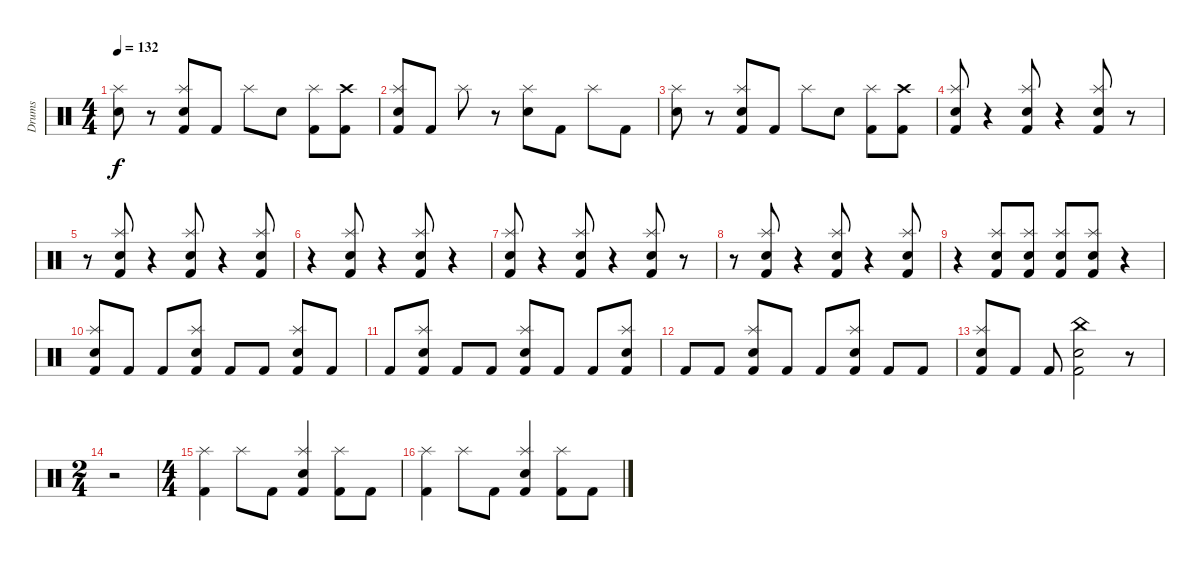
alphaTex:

\track ("Drums" "Drums") {instrument percussion}
\staff {score}
\articulation defaults
\ts (4 4)
\tempo 132
\clef neutral
\ks c
("Electric Snare (hit)" "Splash (hit)").8{dy f} r.8 ("Kick (hit) 2" "Splash (hit)" "Electric Snare (hit)").8 "Kick (hit) 2".8 "Splash (hit)".8 "Electric Snare (hit)".8 ("Kick (hit) 2" "Splash (hit)").8 ("Kick (hit) 2" "Crash high (hit)").8 |
("Kick (hit) 2" "Splash (hit)" "Electric Snare (hit)").8 "Kick (hit) 2".8 "Splash (hit)".8 r.8 ("Electric Snare (hit)" "Splash (hit)").8 "Kick (hit) 2".8 "Splash (hit)".8 "Kick (hit) 2".8 |
("Electric Snare (hit)" "Splash (hit)").8 r.8 ("Kick (hit) 2" "Splash (hit)" "Electric Snare (hit)").8 "Kick (hit) 2".8 "Splash (hit)".8 "Electric Snare (hit)".8 ("Kick (hit) 2" "Splash (hit)").8 ("Kick (hit) 2" "Crash high (hit)").8 |
("Kick (hit) 2" "Splash (hit)" "Electric Snare (hit)").8 r.4 ("Kick (hit) 2" "Splash (hit)" "Electric Snare (hit)").8 r.4 ("Kick (hit) 2" "Splash (hit)" "Electric Snare (hit)").8 r.8 |
r.8 ("Kick (hit) 2" "Splash (hit)" "Electric Snare (hit)").8 r.4 ("Kick (hit) 2" "Splash (hit)" "Electric Snare (hit)").8 r.4 ("Kick (hit) 2" "Splash (hit)" "Electric Snare (hit)").8 |
r.4 ("Kick (hit) 2" "Splash (hit)" "Electric Snare (hit)").8 r.4 ("Kick (hit) 2" "Splash (hit)" "Electric Snare (hit)").8 r.4 |
("Kick (hit) 2" "Splash (hit)" "Electric Snare (hit)").8 r.4 ("Kick (hit) 2" "Splash (hit)" "Electric Snare (hit)").8 r.4 ("Kick (hit) 2" "Splash (hit)" "Electric Snare (hit)").8 r.8 |
r.8 ("Kick (hit) 2" "Splash (hit)" "Electric Snare (hit)").8 r.4 ("Kick (hit) 2" "Splash (hit)" "Electric Snare (hit)").8 r.4 ("Kick (hit) 2" "Splash (hit)" "Electric Snare (hit)").8 |
r.4 ("Kick (hit) 2" "Splash (hit)" "Electric Snare (hit)").8 ("Kick (hit) 2" "Splash (hit)" "Electric Snare (hit)").8 ("Kick (hit) 2" "Splash (hit)" "Electric Snare (hit)").8 ("Kick (hit) 2" "Splash (hit)" "Electric Snare (hit)").8 r.4 |
("Kick (hit) 2" "Splash (hit)" "Electric Snare (hit)").8 "Kick (hit) 2".8 "Kick (hit) 2".8 ("Electric Snare (hit)" "Splash (hit)" "Kick (hit) 2").8 "Kick (hit) 2".8 "Kick (hit) 2".8 ("Electric Snare (hit)" "Splash (hit)" "Kick (hit) 2").8 "Kick (hit) 2".8 |
"Kick (hit) 2".8 ("Electric Snare (hit)" "Splash (hit)" "Kick (hit) 2").8 "Kick (hit) 2".8 "Kick (hit) 2".8 ("Electric Snare (hit)" "Splash (hit)" "Kick (hit) 2").8 "Kick (hit) 2".8 "Kick (hit) 2".8 ("Electric Snare (hit)" "Splash (hit)" "Kick (hit) 2").8 |
"Kick (hit) 2".8 "Kick (hit) 2".8 ("Electric Snare (hit)" "Splash (hit)" "Kick (hit) 2").8 "Kick (hit) 2".8 "Kick (hit) 2".8 ("Electric Snare (hit)" "Splash (hit)" "Kick (hit) 2").8 "Kick (hit) 2".8 "Kick (hit) 2".8 |
("Electric Snare (hit)" "Splash (hit)" "Kick (hit) 2").8 "Kick (hit) 2".8 "Kick (hit) 2".8 ("Electric Snare (hit)" "Kick (hit) 2" "China (hit)").2 r.8 |
\ts (2 4)
r.2 |
\ts (4 4)
("Splash (hit)" "Kick (hit) 2").4 "Splash (hit)".8 "Kick (hit) 2".8 ("Electric Snare (hit)" "Splash (hit)" "Kick (hit) 2").4 ("Splash (hit)" "Kick (hit) 2").8 "Kick (hit) 2".8 |
("Splash (hit)" "Kick (hit) 2").4 "Splash (hit)".8 "Kick (hit) 2".8 ("Electric Snare (hit)" "Splash (hit)" "Kick (hit) 2").4 ("Splash (hit)" "Kick (hit) 2").8 "Kick (hit) 2".8
